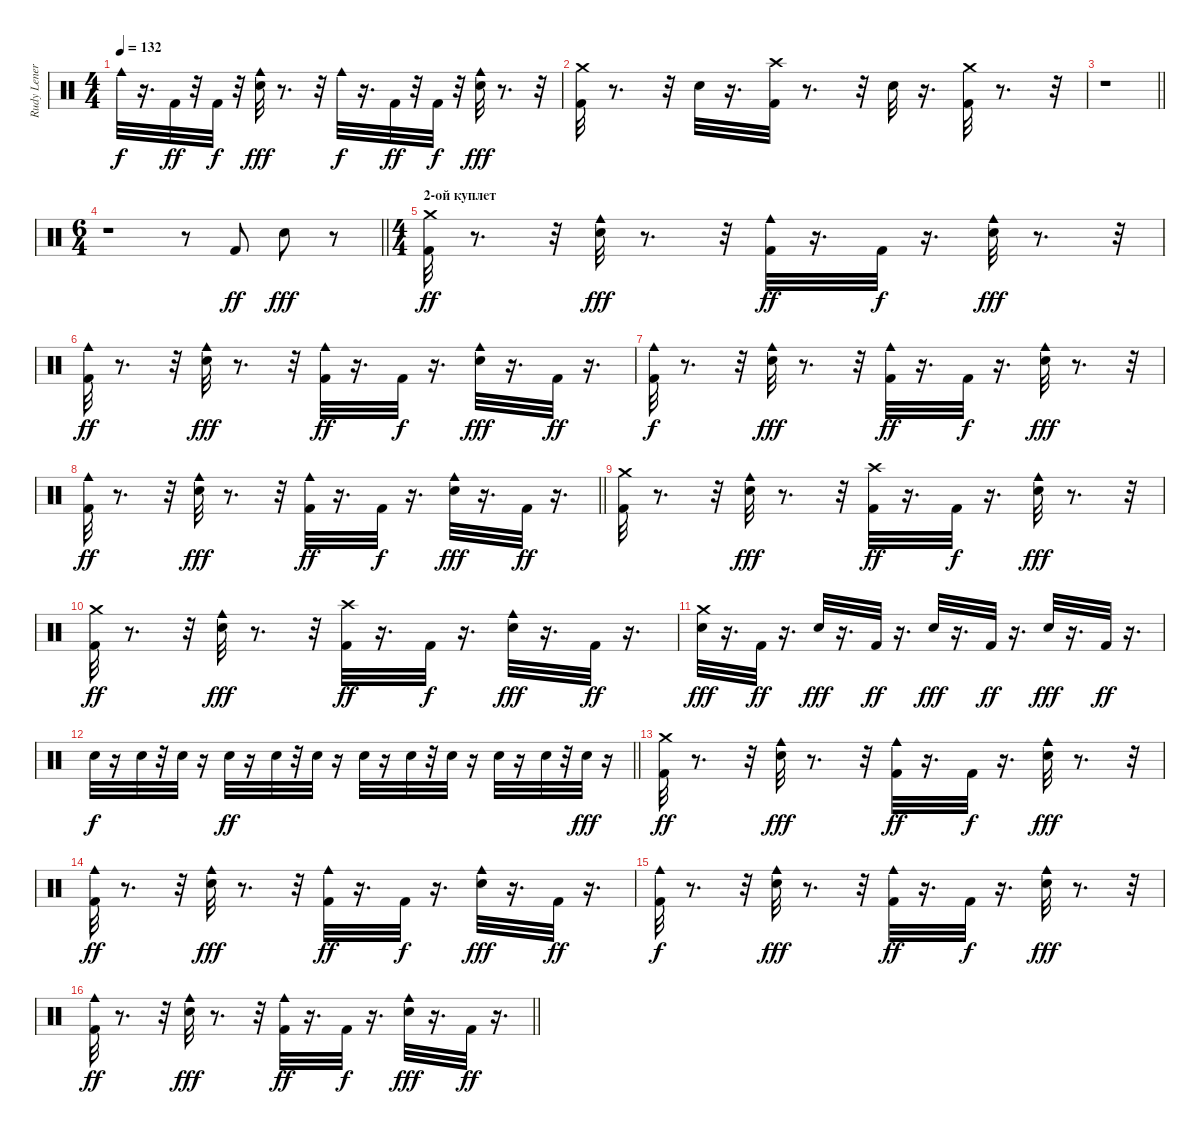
\track ("Rudy Leners" "Rudy Lener") {instrument percussion}
\staff {score}
\articulation defaults
\ts (4 4)
\tempo 132
\clef neutral
\ks c "Cowbell medium (hit)".32{dy f}
r.16{d} "Kick (hit) 2".32{dy ff} r.32 "Kick (hit) 2".32{dy f} r.32 ("Cowbell medium (hit)" "Snare (hit) 2").32{dy fff} r.8{d} r.32 "Cowbell medium (hit)".32{dy f} r.16{d} "Kick (hit) 2".32{dy ff} r.32 "Kick (hit) 2".32{dy f} r.32 ("Cowbell medium (hit)" "Snare (hit) 2").32{dy fff} r.8{d} r.32 |
("Kick (hit) 2" "Crash medium (hit)").32 r.8{d} r.32 "Snare (hit) 2".32 r.16{d} ("Kick (hit) 2" "Crash high (hit)").32 r.8{d} r.32 "Snare (hit) 2".32 r.16{d} ("Kick (hit) 2" "Crash medium (hit)").32 r.8{d} r.32 |
\barLineRight lightlight
r.1 |
\ts (6 4)
\barLineRight lightlight
r.1 r.8 "Kick (hit) 2".8{dy ff} "Snare (hit) 2".8{dy fff} r.8 |
\ts (4 4)
\section ("" "2-ой куплет")
("Crash medium (hit)" "Kick (hit) 2").32{dy ff} r.8{d} r.32 ("Snare (hit) 2" "Cowbell medium (hit)").32{dy fff} r.8{d} r.32 ("Kick (hit) 2" "Cowbell medium (hit)").32{dy ff} r.16{d} "Kick (hit) 2".32{dy f} r.16{d} ("Snare (hit) 2" "Cowbell medium (hit)").32{dy fff} r.8{d} r.32 |
("Cowbell medium (hit)" "Kick (hit) 2").32{dy ff} r.8{d} r.32 ("Cowbell medium (hit)" "Snare (hit) 2").32{dy fff} r.8{d} r.32 ("Cowbell medium (hit)" "Kick (hit) 2").32{dy ff} r.16{d} "Kick (hit) 2".32{dy f} r.16{d} ("Cowbell medium (hit)" "Snare (hit) 2").32{dy fff} r.16{d} "Kick (hit) 2".32{dy ff} r.16{d} |
("Kick (hit) 2" "Cowbell medium (hit)").32{dy f} r.8{d} r.32 ("Snare (hit) 2" "Cowbell medium (hit)").32{dy fff} r.8{d} r.32 ("Kick (hit) 2" "Cowbell medium (hit)").32{dy ff} r.16{d} "Kick (hit) 2".32{dy f} r.16{d} ("Snare (hit) 2" "Cowbell medium (hit)").32{dy fff} r.8{d} r.32 |
\barLineRight lightlight
("Cowbell medium (hit)" "Kick (hit) 2").32{dy ff} r.8{d} r.32 ("Cowbell medium (hit)" "Snare (hit) 2").32{dy fff} r.8{d} r.32 ("Cowbell medium (hit)" "Kick (hit) 2").32{dy ff} r.16{d} "Kick (hit) 2".32{dy f} r.16{d} ("Cowbell medium (hit)" "Snare (hit) 2").32{dy fff} r.16{d} "Kick (hit) 2".32{dy ff} r.16{d} |
("Crash medium (hit)" "Kick (hit) 2").32 r.8{d} r.32 ("Snare (hit) 2" "Cowbell medium (hit)").32{dy fff} r.8{d} r.32 ("Crash high (hit)" "Kick (hit) 2").32{dy ff} r.16{d} "Kick (hit) 2".32{dy f} r.16{d} ("Snare (hit) 2" "Cowbell medium (hit)").32{dy fff} r.8{d} r.32 |
("Crash medium (hit)" "Kick (hit) 2").32{dy ff} r.8{d} r.32 ("Cowbell medium (hit)" "Snare (hit) 2").32{dy fff} r.8{d} r.32 ("Crash high (hit)" "Kick (hit) 2").32{dy ff} r.16{d} "Kick (hit) 2".32{dy f} r.16{d} ("Cowbell medium (hit)" "Snare (hit) 2").32{dy fff} r.16{d} "Kick (hit) 2".32{dy ff} r.16{d} |
("Crash medium (hit)" "Snare (hit) 2").32{dy fff} r.16{d} "Kick (hit) 2".32{dy ff} r.16{d} "Snare (hit) 2".32{dy fff} r.16{d} "Kick (hit) 2".32{dy ff} r.16{d} "Snare (hit) 2".32{dy fff} r.16{d} "Kick (hit) 2".32{dy ff} r.16{d} "Snare (hit) 2".32{dy fff} r.16{d} "Kick (hit) 2".32{dy ff} r.16{d} |
\barLineRight lightlight "Snare (hit) 2".32{dy f}
r.16 "Snare (hit) 2".32 r.32 "Snare (hit) 2".32 r.16 "Snare (hit) 2".32{dy ff} r.16 "Snare (hit) 2".32 r.32 "Snare (hit) 2".32 r.16 "Snare (hit) 2".32 r.16 "Snare (hit) 2".32 r.32 "Snare (hit) 2".32 r.16 "Snare (hit) 2".32 r.16 "Snare (hit) 2".32 r.32 "Snare (hit) 2".32{dy fff} r.16 |
("Crash medium (hit)" "Kick (hit) 2").32{dy ff} r.8{d} r.32 ("Snare (hit) 2" "Cowbell medium (hit)").32{dy fff} r.8{d} r.32 ("Kick (hit) 2" "Cowbell medium (hit)").32{dy ff} r.16{d} "Kick (hit) 2".32{dy f} r.16{d} ("Snare (hit) 2" "Cowbell medium (hit)").32{dy fff} r.8{d} r.32 |
("Cowbell medium (hit)" "Kick (hit) 2").32{dy ff} r.8{d} r.32 ("Cowbell medium (hit)" "Snare (hit) 2").32{dy fff} r.8{d} r.32 ("Cowbell medium (hit)" "Kick (hit) 2").32{dy ff} r.16{d} "Kick (hit) 2".32{dy f} r.16{d} ("Cowbell medium (hit)" "Snare (hit) 2").32{dy fff} r.16{d} "Kick (hit) 2".32{dy ff} r.16{d} |
("Kick (hit) 2" "Cowbell medium (hit)").32{dy f} r.8{d} r.32 ("Snare (hit) 2" "Cowbell medium (hit)").32{dy fff} r.8{d} r.32 ("Kick (hit) 2" "Cowbell medium (hit)").32{dy ff} r.16{d} "Kick (hit) 2".32{dy f} r.16{d} ("Snare (hit) 2" "Cowbell medium (hit)").32{dy fff} r.8{d} r.32 |
\barLineRight lightlight
("Cowbell medium (hit)" "Kick (hit) 2").32{dy ff} r.8{d} r.32 ("Cowbell medium (hit)" "Snare (hit) 2").32{dy fff} r.8{d} r.32 ("Cowbell medium (hit)" "Kick (hit) 2").32{dy ff} r.16{d} "Kick (hit) 2".32{dy f} r.16{d} ("Cowbell medium (hit)" "Snare (hit) 2").32{dy fff} r.16{d} "Kick (hit) 2".32{dy ff} r.16{d}
